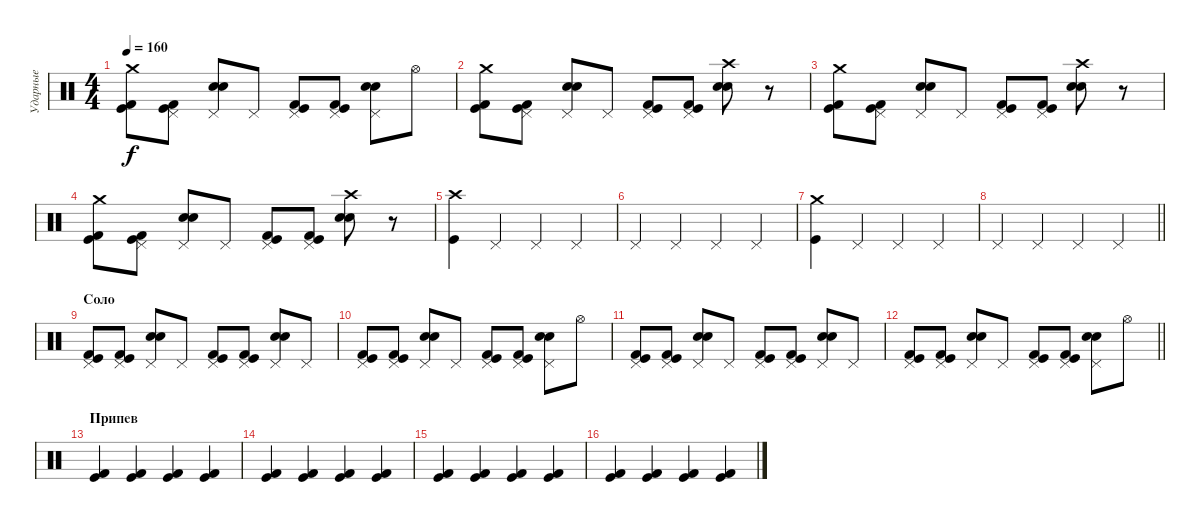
\track ("Ударные" "Ударные") {instrument percussion}
\staff {score}
\articulation defaults
\ts (4 4)
\tempo 160
\clef neutral
\ks c
("Crash medium (hit)" "Kick (hit)" "Kick (hit) 2").8{dy f} ("Pedal Hi-Hat (hit)" "Kick (hit)" "Kick (hit) 2").8 ("Pedal Hi-Hat (hit)" "Snare (hit) 2" "Electric Snare (hit)").8 "Pedal Hi-Hat (hit)".8 ("Pedal Hi-Hat (hit)" "Kick (hit)" "Kick (hit) 2").8 ("Pedal Hi-Hat (hit)" "Kick (hit)" "Kick (hit) 2").8 ("Pedal Hi-Hat (hit)" "Snare (hit) 2" "Electric Snare (hit)").8 "Hi-Hat (open)".8 |
("Crash medium (hit)" "Kick (hit)" "Kick (hit) 2").8 ("Pedal Hi-Hat (hit)" "Kick (hit)" "Kick (hit) 2").8 ("Pedal Hi-Hat (hit)" "Snare (hit) 2" "Electric Snare (hit)").8 "Pedal Hi-Hat (hit)".8 ("Pedal Hi-Hat (hit)" "Kick (hit)" "Kick (hit) 2").8 ("Pedal Hi-Hat (hit)" "Kick (hit)" "Kick (hit) 2").8 ("Crash high (hit)" "Snare (hit) 2" "Electric Snare (hit)").8 r.8 |
("Crash medium (hit)" "Kick (hit)" "Kick (hit) 2").8 ("Pedal Hi-Hat (hit)" "Kick (hit)" "Kick (hit) 2").8 ("Pedal Hi-Hat (hit)" "Snare (hit) 2" "Electric Snare (hit)").8 "Pedal Hi-Hat (hit)".8 ("Pedal Hi-Hat (hit)" "Kick (hit)" "Kick (hit) 2").8 ("Pedal Hi-Hat (hit)" "Kick (hit)" "Kick (hit) 2").8 ("Crash high (hit)" "Snare (hit) 2" "Electric Snare (hit)").8 r.8 |
("Crash medium (hit)" "Kick (hit)" "Kick (hit) 2").8 ("Pedal Hi-Hat (hit)" "Kick (hit)" "Kick (hit) 2").8 ("Pedal Hi-Hat (hit)" "Snare (hit) 2" "Electric Snare (hit)").8 "Pedal Hi-Hat (hit)".8 ("Pedal Hi-Hat (hit)" "Kick (hit)" "Kick (hit) 2").8 ("Pedal Hi-Hat (hit)" "Kick (hit)" "Kick (hit) 2").8 ("Crash high (hit)" "Snare (hit) 2" "Electric Snare (hit)").8 r.8 |
("Crash high (hit)" "Kick (hit)").4 "Pedal Hi-Hat (hit)".4 "Pedal Hi-Hat (hit)".4 "Pedal Hi-Hat (hit)".4 |
"Pedal Hi-Hat (hit)".4 "Pedal Hi-Hat (hit)".4 "Pedal Hi-Hat (hit)".4 "Pedal Hi-Hat (hit)".4 |
("Crash medium (hit)" "Kick (hit)").4 "Pedal Hi-Hat (hit)".4 "Pedal Hi-Hat (hit)".4 "Pedal Hi-Hat (hit)".4 |
\barLineRight lightlight "Pedal Hi-Hat (hit)".4 "Pedal Hi-Hat (hit)".4 "Pedal Hi-Hat (hit)".4 "Pedal Hi-Hat (hit)".4
|
\section ("" "Соло")
("Pedal Hi-Hat (hit)" "Kick (hit)" "Kick (hit) 2").8 ("Pedal Hi-Hat (hit)" "Kick (hit)" "Kick (hit) 2").8 ("Pedal Hi-Hat (hit)" "Snare (hit) 2" "Electric Snare (hit)").8 "Pedal Hi-Hat (hit)".8 ("Pedal Hi-Hat (hit)" "Kick (hit)" "Kick (hit) 2").8 ("Pedal Hi-Hat (hit)" "Kick (hit)" "Kick (hit) 2").8 ("Pedal Hi-Hat (hit)" "Snare (hit) 2" "Electric Snare (hit)").8 "Pedal Hi-Hat (hit)".8 |
("Pedal Hi-Hat (hit)" "Kick (hit)" "Kick (hit) 2").8 ("Pedal Hi-Hat (hit)" "Kick (hit)" "Kick (hit) 2").8 ("Pedal Hi-Hat (hit)" "Snare (hit) 2" "Electric Snare (hit)").8 "Pedal Hi-Hat (hit)".8 ("Pedal Hi-Hat (hit)" "Kick (hit)" "Kick (hit) 2").8 ("Pedal Hi-Hat (hit)" "Kick (hit)" "Kick (hit) 2").8 ("Pedal Hi-Hat (hit)" "Snare (hit) 2" "Electric Snare (hit)").8 "Hi-Hat (open)".8 |
("Pedal Hi-Hat (hit)" "Kick (hit)" "Kick (hit) 2").8 ("Pedal Hi-Hat (hit)" "Kick (hit)" "Kick (hit) 2").8 ("Pedal Hi-Hat (hit)" "Snare (hit) 2" "Electric Snare (hit)").8 "Pedal Hi-Hat (hit)".8 ("Pedal Hi-Hat (hit)" "Kick (hit)" "Kick (hit) 2").8 ("Pedal Hi-Hat (hit)" "Kick (hit)" "Kick (hit) 2").8 ("Pedal Hi-Hat (hit)" "Snare (hit) 2" "Electric Snare (hit)").8 "Pedal Hi-Hat (hit)".8 |
\barLineRight lightlight
("Pedal Hi-Hat (hit)" "Kick (hit)" "Kick (hit) 2").8 ("Pedal Hi-Hat (hit)" "Kick (hit)" "Kick (hit) 2").8 ("Pedal Hi-Hat (hit)" "Snare (hit) 2" "Electric Snare (hit)").8 "Pedal Hi-Hat (hit)".8 ("Pedal Hi-Hat (hit)" "Kick (hit)" "Kick (hit) 2").8 ("Pedal Hi-Hat (hit)" "Kick (hit)" "Kick (hit) 2").8 ("Pedal Hi-Hat (hit)" "Snare (hit) 2" "Electric Snare (hit)").8 "Hi-Hat (open)".8 |
\section ("" "Припев")
("Kick (hit) 2" "Kick (hit)").4 ("Kick (hit) 2" "Kick (hit)").4 ("Kick (hit) 2" "Kick (hit)").4 ("Kick (hit) 2" "Kick (hit)").4 |
("Kick (hit) 2" "Kick (hit)").4 ("Kick (hit) 2" "Kick (hit)").4 ("Kick (hit) 2" "Kick (hit)").4 ("Kick (hit) 2" "Kick (hit)").4 |
("Kick (hit) 2" "Kick (hit)").4 ("Kick (hit) 2" "Kick (hit)").4 ("Kick (hit) 2" "Kick (hit)").4 ("Kick (hit) 2" "Kick (hit)").4 |
("Kick (hit) 2" "Kick (hit)").4 ("Kick (hit) 2" "Kick (hit)").4 ("Kick (hit) 2" "Kick (hit)").4 ("Kick (hit) 2" "Kick (hit)").4
